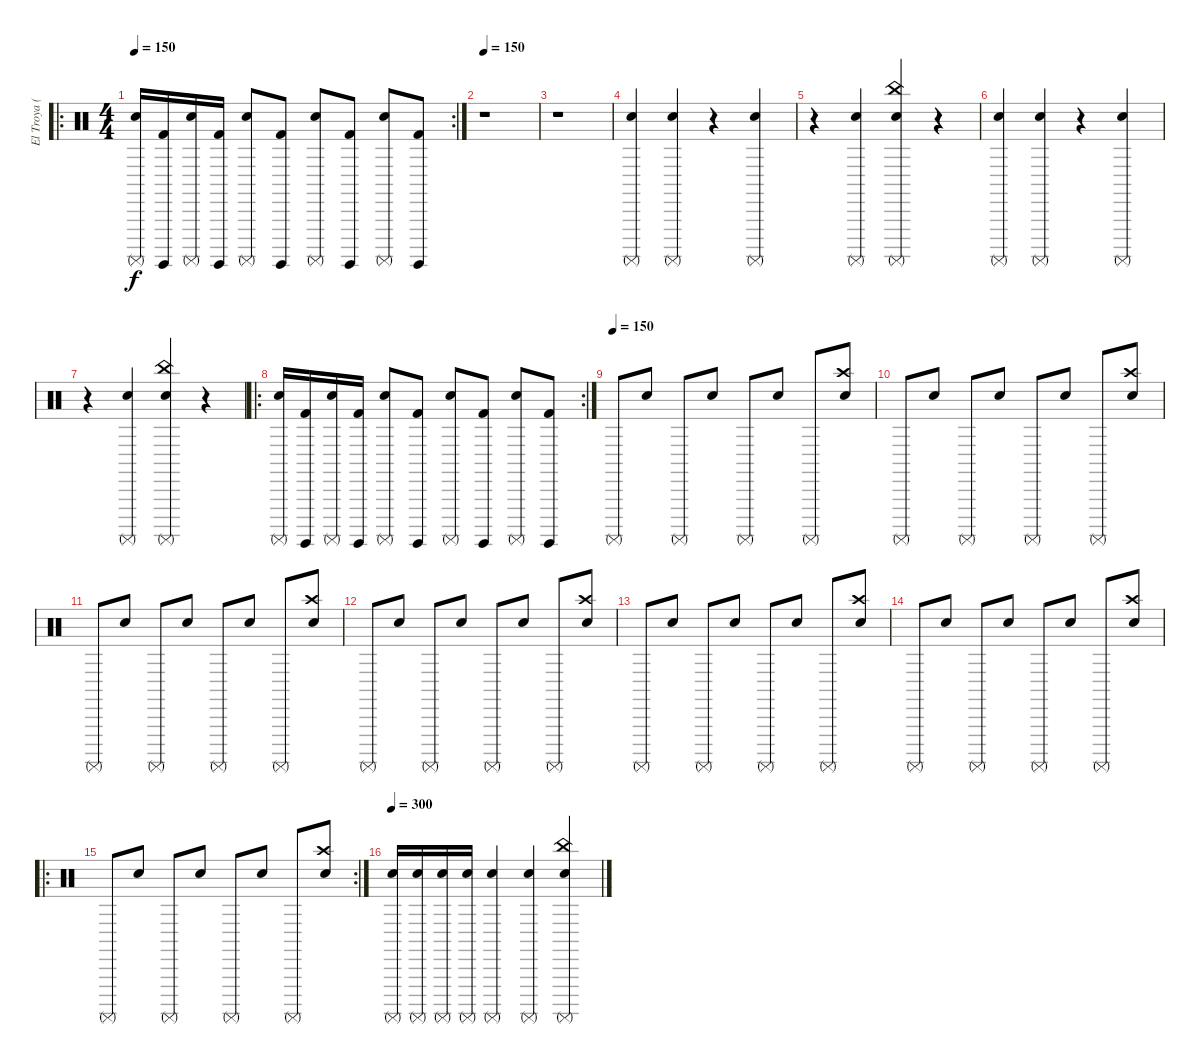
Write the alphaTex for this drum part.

\track ("El Troya (premio)" "El Troya (") {instrument percussion}
\staff {score}
\articulation defaults
\ro
\rc 2
\ts (4 4)
\tempo 150
\clef neutral
\ks c
("Surdo (mute)" "Snare (hit) 2").16{dy f} ("Surdo (hit)" "Kick (hit) 2").16 ("Surdo (mute)" "Snare (hit) 2").16 ("Surdo (hit)" "Kick (hit) 2").16 ("Surdo (mute)" "Snare (hit) 2").8 ("Surdo (hit)" "Kick (hit) 2").8 ("Surdo (mute)" "Snare (hit) 2").8 ("Surdo (hit)" "Kick (hit) 2").8 ("Surdo (mute)" "Snare (hit) 2").8 ("Surdo (hit)" "Kick (hit) 2").8 |
\tempo 150
r.1 |
r.1 |
("Electric Snare (hit)" "Surdo (mute)").4 ("Electric Snare (hit)" "Surdo (mute)").4 r.4 ("Electric Snare (hit)" "Surdo (mute)").4 |
r.4 ("Electric Snare (hit)" "Surdo (mute)").4 ("China (hit)" "Electric Snare (hit)" "Surdo (mute)").4 r.4 |
("Electric Snare (hit)" "Surdo (mute)").4 ("Electric Snare (hit)" "Surdo (mute)").4 r.4 ("Electric Snare (hit)" "Surdo (mute)").4 |
r.4 ("Electric Snare (hit)" "Surdo (mute)").4 ("China (hit)" "Electric Snare (hit)" "Surdo (mute)").4 r.4 |
\ro
\rc 2
("Surdo (mute)" "Snare (hit) 2").16 ("Surdo (hit)" "Kick (hit) 2").16 ("Surdo (mute)" "Snare (hit) 2").16 ("Surdo (hit)" "Kick (hit) 2").16 ("Surdo (mute)" "Snare (hit) 2").8 ("Surdo (hit)" "Kick (hit) 2").8 ("Surdo (mute)" "Snare (hit) 2").8 ("Surdo (hit)" "Kick (hit) 2").8 ("Surdo (mute)" "Snare (hit) 2").8 ("Surdo (hit)" "Kick (hit) 2").8 |
\tempo (150)
"Surdo (mute)".8 "Electric Snare (hit)".8 "Surdo (mute)".8 "Electric Snare (hit)".8 "Surdo (mute)".8 "Electric Snare (hit)".8 "Surdo (mute)".8 ("Crash high (hit)" "Electric Snare (hit)").8 |
"Surdo (mute)".8 "Electric Snare (hit)".8 "Surdo (mute)".8 "Electric Snare (hit)".8 "Surdo (mute)".8 "Electric Snare (hit)".8 "Surdo (mute)".8 ("Crash high (hit)" "Electric Snare (hit)").8 |
"Surdo (mute)".8 "Electric Snare (hit)".8 "Surdo (mute)".8 "Electric Snare (hit)".8 "Surdo (mute)".8 "Electric Snare (hit)".8 "Surdo (mute)".8 ("Crash high (hit)" "Electric Snare (hit)").8 |
"Surdo (mute)".8 "Electric Snare (hit)".8 "Surdo (mute)".8 "Electric Snare (hit)".8 "Surdo (mute)".8 "Electric Snare (hit)".8 "Surdo (mute)".8 ("Crash high (hit)" "Electric Snare (hit)").8 |
"Surdo (mute)".8 "Electric Snare (hit)".8 "Surdo (mute)".8 "Electric Snare (hit)".8 "Surdo (mute)".8 "Electric Snare (hit)".8 "Surdo (mute)".8 ("Crash high (hit)" "Electric Snare (hit)").8 |
"Surdo (mute)".8 "Electric Snare (hit)".8 "Surdo (mute)".8 "Electric Snare (hit)".8 "Surdo (mute)".8 "Electric Snare (hit)".8 "Surdo (mute)".8 ("Crash high (hit)" "Electric Snare (hit)").8 |
\ro
\rc 2 "Surdo (mute)".8 "Electric Snare (hit)".8 "Surdo (mute)".8 "Electric Snare (hit)".8 "Surdo (mute)".8 "Electric Snare (hit)".8 "Surdo (mute)".8
("Crash high (hit)" "Electric Snare (hit)").8 |
\tempo 300
("Electric Snare (hit)" "Surdo (mute)").16 ("Electric Snare (hit)" "Surdo (mute)").16 ("Electric Snare (hit)" "Surdo (mute)").16 ("Electric Snare (hit)" "Surdo (mute)").16 ("Electric Snare (hit)" "Surdo (mute)").4 ("Electric Snare (hit)" "Surdo (mute)").4 ("China (hit)" "Electric Snare (hit)" "Surdo (mute)").4
